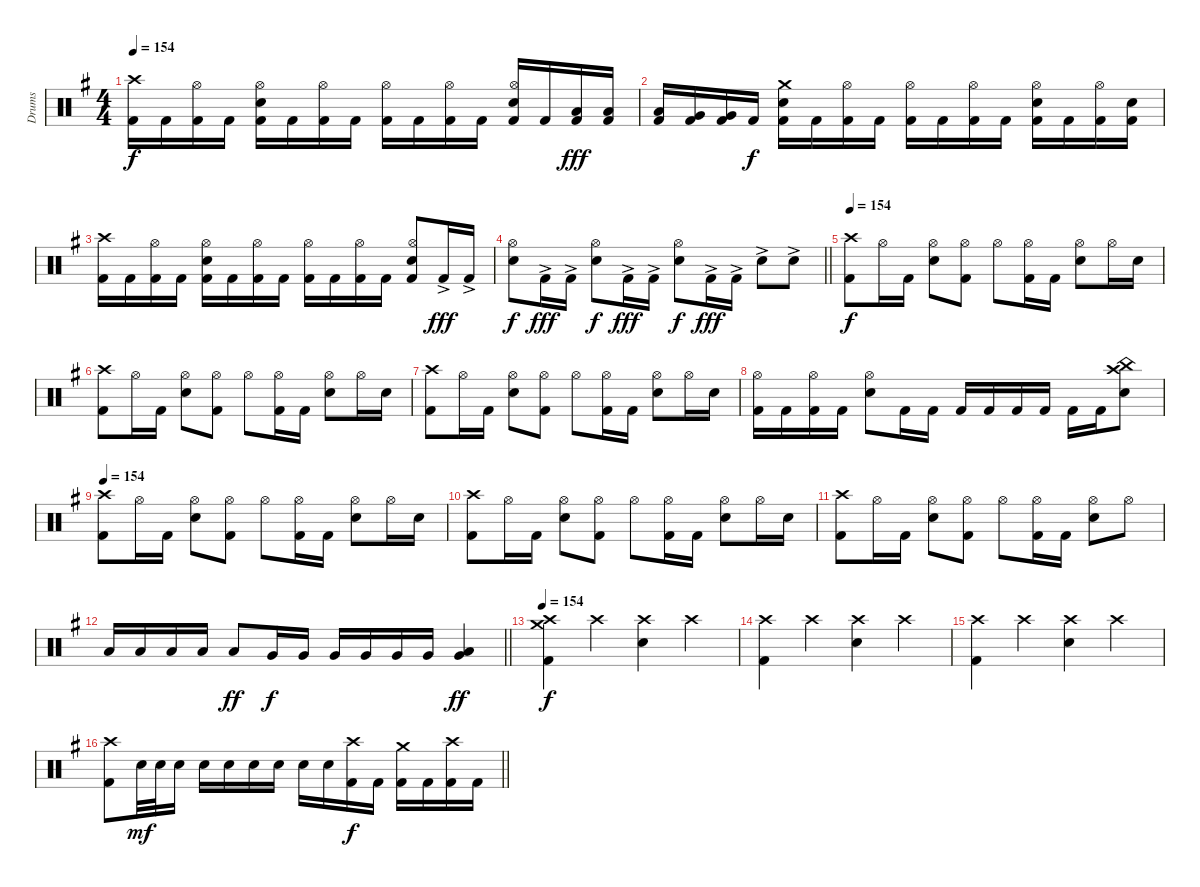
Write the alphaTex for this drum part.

\track ("Drums" "Drums") {instrument percussion}
\staff {score}
\articulation defaults
\ts (4 4)
\tempo 154
\clef neutral
\ks eminor
("Crash high (hit)" "Kick (hit) 2").16{dy f} "Kick (hit) 2".16 ("Hi-Hat (open)" "Kick (hit) 2").16 "Kick (hit) 2".16 ("Hi-Hat (open)" "Snare (hit) 2" "Kick (hit) 2").16 "Kick (hit) 2".16 ("Hi-Hat (open)" "Kick (hit) 2").16 "Kick (hit) 2".16 ("Hi-Hat (open)" "Kick (hit) 2").16 "Kick (hit) 2".16 ("Hi-Hat (open)" "Kick (hit) 2").16 "Kick (hit) 2".16 ("Hi-Hat (open)" "Snare (hit) 2" "Kick (hit) 2").16 "Kick (hit) 2".16 ("Low Tom (hit)" "Kick (hit) 2").16{dy fff} ("Low Tom (hit)" "Kick (hit) 2").16 |
("Low Tom (hit)" "Kick (hit) 2").16 ("Very Low Tom (hit)" "Kick (hit) 2").16 ("Very Low Tom (hit)" "Kick (hit) 2").16 "Kick (hit) 2".16{dy f} ("Crash medium (hit)" "Snare (hit) 2" "Kick (hit) 2").16 "Kick (hit) 2".16 ("Hi-Hat (open)" "Kick (hit) 2").16 "Kick (hit) 2".16 ("Hi-Hat (open)" "Kick (hit) 2").16 "Kick (hit) 2".16 ("Hi-Hat (open)" "Kick (hit) 2").16 "Kick (hit) 2".16 ("Hi-Hat (open)" "Snare (hit) 2" "Kick (hit) 2").16 "Kick (hit) 2".16 ("Hi-Hat (open)" "Kick (hit) 2").16 ("Snare (hit) 2" "Kick (hit) 2").16 |
("Crash high (hit)" "Kick (hit) 2").16 "Kick (hit) 2".16 ("Hi-Hat (open)" "Kick (hit) 2").16 "Kick (hit) 2".16 ("Hi-Hat (open)" "Snare (hit) 2" "Kick (hit) 2").16 "Kick (hit) 2".16 ("Hi-Hat (open)" "Kick (hit) 2").16 "Kick (hit) 2".16 ("Hi-Hat (open)" "Kick (hit) 2").16 "Kick (hit) 2".16 ("Hi-Hat (open)" "Kick (hit) 2").16 "Kick (hit) 2".16 ("Hi-Hat (open)" "Snare (hit) 2" "Kick (hit) 2").8 "Kick (hit) 2"{ac}.16{dy fff} "Kick (hit) 2"{ac}.16 |
\barLineRight lightlight
("Hi-Hat (open)" "Snare (hit) 2").8{dy f} "Kick (hit) 2"{ac}.16{dy fff} "Kick (hit) 2"{ac}.16 ("Hi-Hat (open)" "Snare (hit) 2").8{dy f} "Kick (hit) 2"{ac}.16{dy fff} "Kick (hit) 2"{ac}.16 ("Hi-Hat (open)" "Snare (hit) 2").8{dy f} "Kick (hit) 2"{ac}.16{dy fff} "Kick (hit) 2"{ac}.16 "Snare (hit) 2"{ac}.8 "Snare (hit) 2"{ac}.8 |
\tempo 154
("Crash high (hit)" "Kick (hit) 2").8{dy f} "Hi-Hat (open)".16 "Kick (hit) 2".16 ("Hi-Hat (open)" "Snare (hit) 2").8 ("Hi-Hat (open)" "Kick (hit) 2").8 "Hi-Hat (open)".8 ("Hi-Hat (open)" "Kick (hit) 2").16 "Kick (hit) 2".16 ("Hi-Hat (open)" "Snare (hit) 2").8 "Hi-Hat (open)".16 "Snare (hit) 2".16 |
("Crash high (hit)" "Kick (hit) 2").8 "Hi-Hat (open)".16 "Kick (hit) 2".16 ("Hi-Hat (open)" "Snare (hit) 2").8 ("Hi-Hat (open)" "Kick (hit) 2").8 "Hi-Hat (open)".8 ("Hi-Hat (open)" "Kick (hit) 2").16 "Kick (hit) 2".16 ("Hi-Hat (open)" "Snare (hit) 2").8 "Hi-Hat (open)".16 "Snare (hit) 2".16 |
("Crash high (hit)" "Kick (hit) 2").8 "Hi-Hat (open)".16 "Kick (hit) 2".16 ("Hi-Hat (open)" "Snare (hit) 2").8 ("Hi-Hat (open)" "Kick (hit) 2").8 "Hi-Hat (open)".8 ("Hi-Hat (open)" "Kick (hit) 2").16 "Kick (hit) 2".16 ("Hi-Hat (open)" "Snare (hit) 2").8 "Hi-Hat (open)".16 "Snare (hit) 2".16 |
("Hi-Hat (open)" "Kick (hit) 2").16 "Kick (hit) 2".16 ("Hi-Hat (open)" "Kick (hit) 2").16 "Kick (hit) 2".16 ("Hi-Hat (open)" "Snare (hit) 2").8 "Kick (hit) 2".16 "Kick (hit) 2".16 "Kick (hit) 2".16 "Kick (hit) 2".16 "Kick (hit) 2".16 "Kick (hit) 2".16 "Kick (hit) 2".16 "Kick (hit) 2".16 ("China (hit)" "Crash high (hit)" "Snare (hit) 2").8 |
\tempo 154
("Crash high (hit)" "Kick (hit) 2").8 "Hi-Hat (open)".16 "Kick (hit) 2".16 ("Hi-Hat (open)" "Snare (hit) 2").8 ("Hi-Hat (open)" "Kick (hit) 2").8 "Hi-Hat (open)".8 ("Hi-Hat (open)" "Kick (hit) 2").16 "Kick (hit) 2".16 ("Hi-Hat (open)" "Snare (hit) 2").8 "Hi-Hat (open)".16 "Snare (hit) 2".16 |
("Crash high (hit)" "Kick (hit) 2").8 "Hi-Hat (open)".16 "Kick (hit) 2".16 ("Hi-Hat (open)" "Snare (hit) 2").8 ("Hi-Hat (open)" "Kick (hit) 2").8 "Hi-Hat (open)".8 ("Hi-Hat (open)" "Kick (hit) 2").16 "Kick (hit) 2".16 ("Hi-Hat (open)" "Snare (hit) 2").8 "Hi-Hat (open)".16 "Snare (hit) 2".16 |
("Crash high (hit)" "Kick (hit) 2").8 "Hi-Hat (open)".16 "Kick (hit) 2".16 ("Hi-Hat (open)" "Snare (hit) 2").8 ("Hi-Hat (open)" "Kick (hit) 2").8 "Hi-Hat (open)".8 ("Hi-Hat (open)" "Kick (hit) 2").16 "Kick (hit) 2".16 ("Hi-Hat (open)" "Snare (hit) 2").8 "Hi-Hat (open)".8 |
\barLineRight lightlight "Low Tom (hit)".16 "Low Tom (hit)".16 "Low Tom (hit)".16 "Low Tom (hit)".16 "Low Tom (hit)".8{dy ff} "Very Low Tom (hit)".16{dy f} "Very Low Tom (hit)".16 "Very Low Tom (hit)".16 "Very Low Tom (hit)".16 "Very Low Tom (hit)".16 "Very Low Tom (hit)".16
("Low Tom (hit)" "Very Low Tom (hit)").4{dy ff} |
\tempo 154
("Crash high (hit)" "Crash medium (hit)" "Kick (hit) 2").4{dy f} "Crash high (hit)".4 ("Crash high (hit)" "Snare (hit) 2").4 "Crash high (hit)".4 |
("Crash high (hit)" "Kick (hit) 2").4 "Crash high (hit)".4 ("Crash high (hit)" "Snare (hit) 2").4 "Crash high (hit)".4 |
("Crash high (hit)" "Kick (hit) 2").4 "Crash high (hit)".4 ("Crash high (hit)" "Snare (hit) 2").4 "Crash high (hit)".4 |
\barLineRight lightlight
("Crash high (hit)" "Kick (hit) 2").8 "Snare (hit) 2".32{dy mf} "Snare (hit) 2".32 "Snare (hit) 2".16 "Snare (hit) 2".16 "Snare (hit) 2".16 "Snare (hit) 2".16 "Snare (hit) 2".16 "Snare (hit) 2".16 "Snare (hit) 2".16 ("Crash high (hit)" "Kick (hit) 2").16{dy f} "Kick (hit) 2".16 ("Crash medium (hit)" "Kick (hit) 2").16 "Kick (hit) 2".16 ("Crash high (hit)" "Kick (hit) 2").16 "Kick (hit) 2".16
